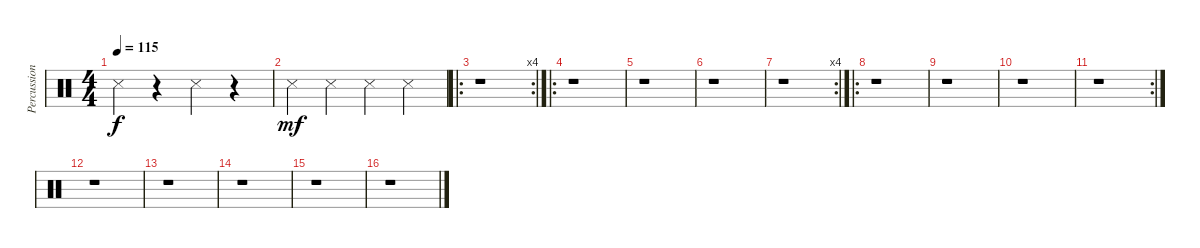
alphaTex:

\track ("Percussion" "Percussion") {instrument percussion}
\staff {score}
\articulation defaults
\ts (4 4)
\tempo 115
\clef neutral
\ks c "Snare (side stick) 3".4{dy f}
r.4 "Snare (side stick) 3".4 r.4 |
"Snare (side stick) 3".4{dy mf} "Snare (side stick) 3".4 "Snare (side stick) 3".4 "Snare (side stick) 3".4 |
\ro
\rc 4
r.1 |
\ro
r.1 |
r.1 |
r.1 |
\rc 4
r.1 |
\ro
r.1 |
r.1 |
r.1 |
\rc 2
r.1 |
r.1 |
r.1 |
r.1 |
r.1 |
r.1
